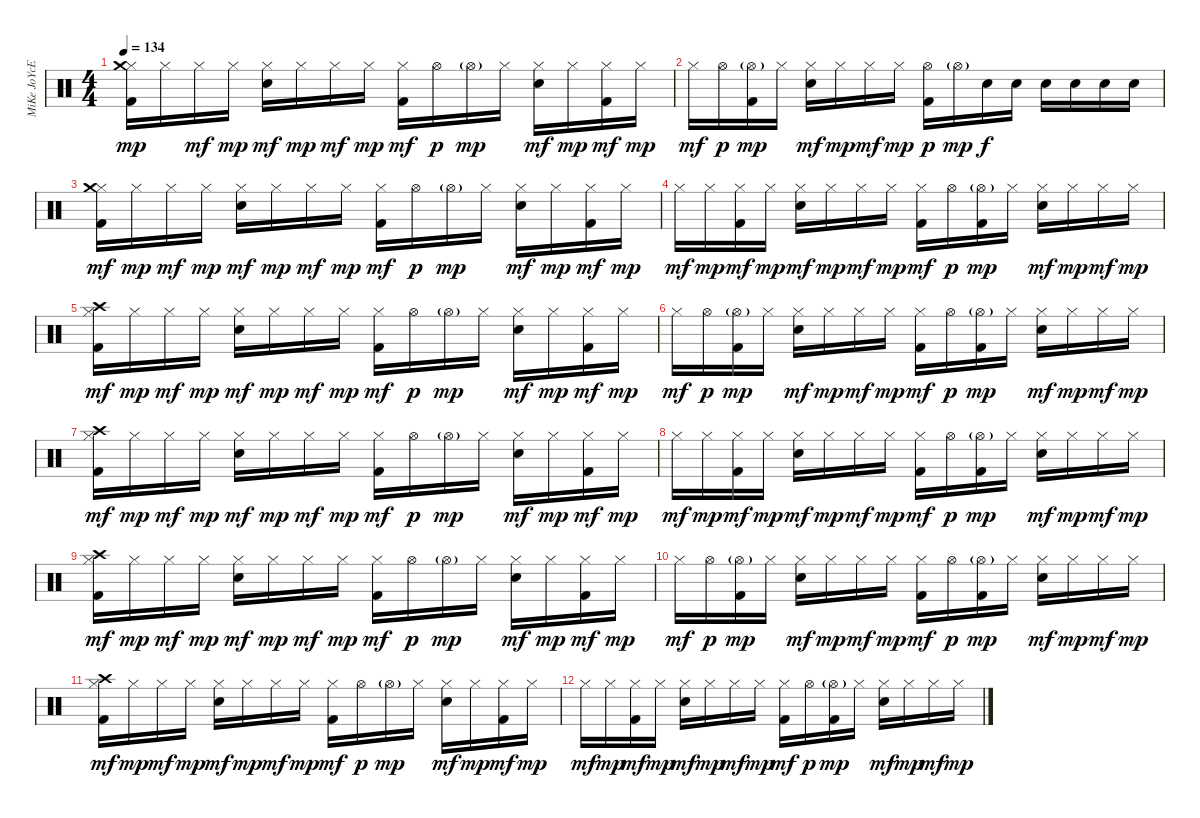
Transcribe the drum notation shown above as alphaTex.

\track ("MiKe JoYcE" "MiKe JoYcE") {instrument percussion}
\staff {score}
\articulation defaults
\ts (4 4)
\tempo 134
\clef neutral
\ks c
("Hi-Hat (closed)" "Crash medium (hit)" "Kick (hit) 2").16{dy mp} "Hi-Hat (closed)".16 "Hi-Hat (closed)".16{dy mf} "Hi-Hat (closed)".16{dy mp} ("Hi-Hat (closed)" "Electric Snare (hit)").16{dy mf} "Hi-Hat (closed)".16{dy mp} "Hi-Hat (closed)".16{dy mf} "Hi-Hat (closed)".16{dy mp} ("Hi-Hat (closed)" "Kick (hit) 2").16{dy mf} "Hi-Hat (open)".16{dy p} "Hi-Hat (open)"{g}.16{dy mp} "Hi-Hat (closed)".16 ("Hi-Hat (closed)" "Electric Snare (hit)").16{dy mf} "Hi-Hat (closed)".16{dy mp} ("Hi-Hat (closed)" "Kick (hit) 2").16{dy mf} "Hi-Hat (closed)".16{dy mp} |
"Hi-Hat (closed)".16{dy mf} "Hi-Hat (open)".16{dy p} ("Hi-Hat (open)"{g} "Kick (hit) 2").16{dy mp} "Hi-Hat (closed)".16 ("Hi-Hat (closed)" "Electric Snare (hit)").16{dy mf} "Hi-Hat (closed)".16{dy mp} "Hi-Hat (closed)".16{dy mf} "Hi-Hat (closed)".16{dy mp} ("Hi-Hat (open)" "Kick (hit) 2").16{dy p} "Hi-Hat (open)"{g}.16{dy mp} "Electric Snare (hit)".16{dy f} "Electric Snare (hit)".16 "Electric Snare (hit)".16 "Electric Snare (hit)".16 "Electric Snare (hit)".16 "Electric Snare (hit)".16 |
("Hi-Hat (closed)" "Crash medium (hit)" "Kick (hit) 2").16{dy mf} "Hi-Hat (closed)".16{dy mp} "Hi-Hat (closed)".16{dy mf} "Hi-Hat (closed)".16{dy mp} ("Hi-Hat (closed)" "Electric Snare (hit)").16{dy mf} "Hi-Hat (closed)".16{dy mp} "Hi-Hat (closed)".16{dy mf} "Hi-Hat (closed)".16{dy mp} ("Hi-Hat (closed)" "Kick (hit) 2").16{dy mf} "Hi-Hat (open)".16{dy p} "Hi-Hat (open)"{g}.16{dy mp} "Hi-Hat (closed)".16 ("Hi-Hat (closed)" "Electric Snare (hit)").16{dy mf} "Hi-Hat (closed)".16{dy mp} ("Hi-Hat (closed)" "Kick (hit) 2").16{dy mf} "Hi-Hat (closed)".16{dy mp} |
"Hi-Hat (closed)".16{dy mf} "Hi-Hat (closed)".16{dy mp} ("Hi-Hat (closed)" "Kick (hit) 2").16{dy mf} "Hi-Hat (closed)".16{dy mp} ("Hi-Hat (closed)" "Electric Snare (hit)").16{dy mf} "Hi-Hat (closed)".16{dy mp} "Hi-Hat (closed)".16{dy mf} "Hi-Hat (closed)".16{dy mp} ("Hi-Hat (closed)" "Kick (hit) 2").16{dy mf} "Hi-Hat (open)".16{dy p} ("Hi-Hat (open)"{g} "Kick (hit) 2").16{dy mp} "Hi-Hat (closed)".16 ("Hi-Hat (closed)" "Electric Snare (hit)").16{dy mf} "Hi-Hat (closed)".16{dy mp} "Hi-Hat (closed)".16{dy mf} "Hi-Hat (closed)".16{dy mp} |
("Hi-Hat (closed)" "Crash high (hit)" "Kick (hit) 2").16{dy mf} "Hi-Hat (closed)".16{dy mp} "Hi-Hat (closed)".16{dy mf} "Hi-Hat (closed)".16{dy mp} ("Hi-Hat (closed)" "Electric Snare (hit)").16{dy mf} "Hi-Hat (closed)".16{dy mp} "Hi-Hat (closed)".16{dy mf} "Hi-Hat (closed)".16{dy mp} ("Hi-Hat (closed)" "Kick (hit) 2").16{dy mf} "Hi-Hat (open)".16{dy p} "Hi-Hat (open)"{g}.16{dy mp} "Hi-Hat (closed)".16 ("Hi-Hat (closed)" "Electric Snare (hit)").16{dy mf} "Hi-Hat (closed)".16{dy mp} ("Hi-Hat (closed)" "Kick (hit) 2").16{dy mf} "Hi-Hat (closed)".16{dy mp} |
"Hi-Hat (closed)".16{dy mf} "Hi-Hat (open)".16{dy p} ("Hi-Hat (open)"{g} "Kick (hit) 2").16{dy mp} "Hi-Hat (closed)".16 ("Hi-Hat (closed)" "Electric Snare (hit)").16{dy mf} "Hi-Hat (closed)".16{dy mp} "Hi-Hat (closed)".16{dy mf} "Hi-Hat (closed)".16{dy mp} ("Hi-Hat (closed)" "Kick (hit) 2").16{dy mf} "Hi-Hat (open)".16{dy p} ("Hi-Hat (open)"{g} "Kick (hit) 2").16{dy mp} "Hi-Hat (closed)".16 ("Hi-Hat (closed)" "Electric Snare (hit)").16{dy mf} "Hi-Hat (closed)".16{dy mp} "Hi-Hat (closed)".16{dy mf} "Hi-Hat (closed)".16{dy mp} |
("Hi-Hat (closed)" "Crash high (hit)" "Kick (hit) 2").16{dy mf} "Hi-Hat (closed)".16{dy mp} "Hi-Hat (closed)".16{dy mf} "Hi-Hat (closed)".16{dy mp} ("Hi-Hat (closed)" "Electric Snare (hit)").16{dy mf} "Hi-Hat (closed)".16{dy mp} "Hi-Hat (closed)".16{dy mf} "Hi-Hat (closed)".16{dy mp} ("Hi-Hat (closed)" "Kick (hit) 2").16{dy mf} "Hi-Hat (open)".16{dy p} "Hi-Hat (open)"{g}.16{dy mp} "Hi-Hat (closed)".16 ("Hi-Hat (closed)" "Electric Snare (hit)").16{dy mf} "Hi-Hat (closed)".16{dy mp} ("Hi-Hat (closed)" "Kick (hit) 2").16{dy mf} "Hi-Hat (closed)".16{dy mp} |
"Hi-Hat (closed)".16{dy mf} "Hi-Hat (closed)".16{dy mp} ("Hi-Hat (closed)" "Kick (hit) 2").16{dy mf} "Hi-Hat (closed)".16{dy mp} ("Hi-Hat (closed)" "Electric Snare (hit)").16{dy mf} "Hi-Hat (closed)".16{dy mp} "Hi-Hat (closed)".16{dy mf} "Hi-Hat (closed)".16{dy mp} ("Hi-Hat (closed)" "Kick (hit) 2").16{dy mf} "Hi-Hat (open)".16{dy p} ("Hi-Hat (open)"{g} "Kick (hit) 2").16{dy mp} "Hi-Hat (closed)".16 ("Hi-Hat (closed)" "Electric Snare (hit)").16{dy mf} "Hi-Hat (closed)".16{dy mp} "Hi-Hat (closed)".16{dy mf} "Hi-Hat (closed)".16{dy mp} |
("Hi-Hat (closed)" "Crash high (hit)" "Kick (hit) 2").16{dy mf} "Hi-Hat (closed)".16{dy mp} "Hi-Hat (closed)".16{dy mf} "Hi-Hat (closed)".16{dy mp} ("Hi-Hat (closed)" "Electric Snare (hit)").16{dy mf} "Hi-Hat (closed)".16{dy mp} "Hi-Hat (closed)".16{dy mf} "Hi-Hat (closed)".16{dy mp} ("Hi-Hat (closed)" "Kick (hit) 2").16{dy mf} "Hi-Hat (open)".16{dy p} "Hi-Hat (open)"{g}.16{dy mp} "Hi-Hat (closed)".16 ("Hi-Hat (closed)" "Electric Snare (hit)").16{dy mf} "Hi-Hat (closed)".16{dy mp} ("Hi-Hat (closed)" "Kick (hit) 2").16{dy mf} "Hi-Hat (closed)".16{dy mp} |
"Hi-Hat (closed)".16{dy mf} "Hi-Hat (open)".16{dy p} ("Hi-Hat (open)"{g} "Kick (hit) 2").16{dy mp} "Hi-Hat (closed)".16 ("Hi-Hat (closed)" "Electric Snare (hit)").16{dy mf} "Hi-Hat (closed)".16{dy mp} "Hi-Hat (closed)".16{dy mf} "Hi-Hat (closed)".16{dy mp} ("Hi-Hat (closed)" "Kick (hit) 2").16{dy mf} "Hi-Hat (open)".16{dy p} ("Hi-Hat (open)"{g} "Kick (hit) 2").16{dy mp} "Hi-Hat (closed)".16 ("Hi-Hat (closed)" "Electric Snare (hit)").16{dy mf} "Hi-Hat (closed)".16{dy mp} "Hi-Hat (closed)".16{dy mf} "Hi-Hat (closed)".16{dy mp} |
("Hi-Hat (closed)" "Crash high (hit)" "Kick (hit) 2").16{dy mf} "Hi-Hat (closed)".16{dy mp} "Hi-Hat (closed)".16{dy mf} "Hi-Hat (closed)".16{dy mp} ("Hi-Hat (closed)" "Electric Snare (hit)").16{dy mf} "Hi-Hat (closed)".16{dy mp} "Hi-Hat (closed)".16{dy mf} "Hi-Hat (closed)".16{dy mp} ("Hi-Hat (closed)" "Kick (hit) 2").16{dy mf} "Hi-Hat (open)".16{dy p} "Hi-Hat (open)"{g}.16{dy mp} "Hi-Hat (closed)".16 ("Hi-Hat (closed)" "Electric Snare (hit)").16{dy mf} "Hi-Hat (closed)".16{dy mp} ("Hi-Hat (closed)" "Kick (hit) 2").16{dy mf} "Hi-Hat (closed)".16{dy mp} |
"Hi-Hat (closed)".16{dy mf} "Hi-Hat (closed)".16{dy mp} ("Hi-Hat (closed)" "Kick (hit) 2").16{dy mf} "Hi-Hat (closed)".16{dy mp} ("Hi-Hat (closed)" "Electric Snare (hit)").16{dy mf} "Hi-Hat (closed)".16{dy mp} "Hi-Hat (closed)".16{dy mf} "Hi-Hat (closed)".16{dy mp} ("Hi-Hat (closed)" "Kick (hit) 2").16{dy mf} "Hi-Hat (open)".16{dy p} ("Hi-Hat (open)"{g} "Kick (hit) 2").16{dy mp} "Hi-Hat (closed)".16 ("Hi-Hat (closed)" "Electric Snare (hit)").16{dy mf} "Hi-Hat (closed)".16{dy mp} "Hi-Hat (closed)".16{dy mf} "Hi-Hat (closed)".16{dy mp}
